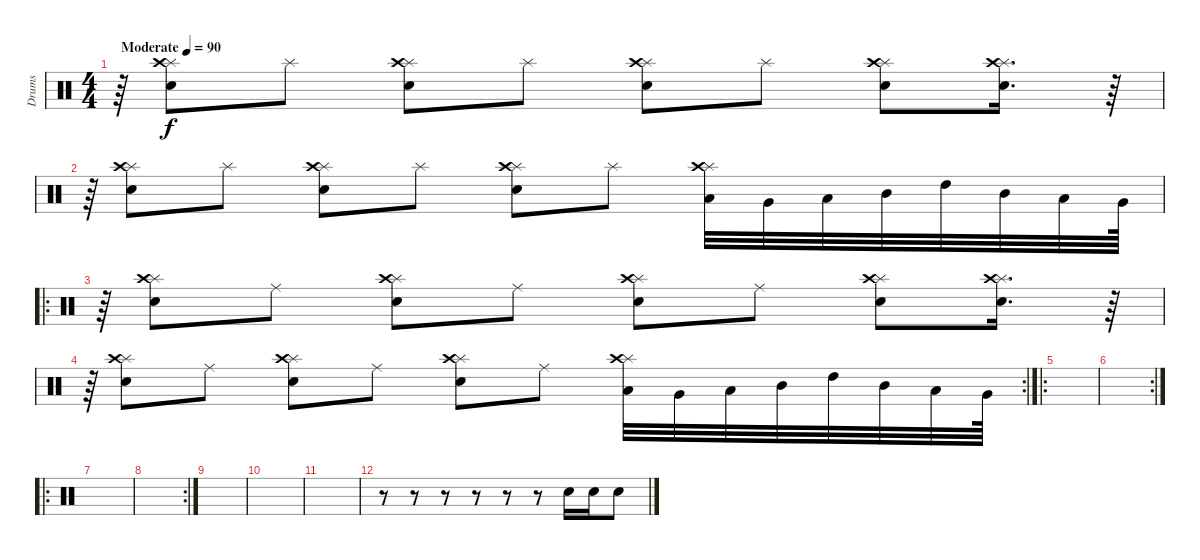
\track ("Drums" "Drums") {instrument percussion}
\staff
\articulation defaults
\ts (4 4)
\tempo (90 "Moderate")
\clef neutral
\ks c
r.64{dy f} ("Electric Snare (hit)" "Splash (hit)" "Crash high (hit)").8 "Splash (hit)".8 ("Electric Snare (hit)" "Splash (hit)" "Crash high (hit)").8 "Splash (hit)".8 ("Electric Snare (hit)" "Splash (hit)" "Crash high (hit)").8 "Splash (hit)".8 ("Electric Snare (hit)" "Splash (hit)" "Crash high (hit)").8 ("Electric Snare (hit)" "Splash (hit)" "Crash high (hit)").16{d} r.64 |
r.64 ("Electric Snare (hit)" "Splash (hit)" "Crash high (hit)").8 "Splash (hit)".8 ("Electric Snare (hit)" "Splash (hit)" "Crash high (hit)").8 "Splash (hit)".8 ("Electric Snare (hit)" "Splash (hit)" "Crash high (hit)").8 "Splash (hit)".8 ("Low Floor Tom (hit)" "Splash (hit)" "Crash high (hit)").32 "Very Low Tom (hit)".32 "Low Tom (hit)".32 "Mid Tom (hit)".32 "High Tom (hit)".32 "Mid Tom (hit)".32 "Low Tom (hit)".32 "Very Low Tom (hit)".64 |
\ro
r.64 ("Electric Snare (hit)" "Splash (hit)" "Crash high (hit)").8 "Ride (middle)".8 ("Electric Snare (hit)" "Splash (hit)" "Crash high (hit)").8 "Ride (middle)".8 ("Electric Snare (hit)" "Splash (hit)" "Crash high (hit)").8 "Ride (middle)".8 ("Electric Snare (hit)" "Splash (hit)" "Crash high (hit)").8 ("Electric Snare (hit)" "Splash (hit)" "Crash high (hit)").16{d} r.64 |
\rc 2
r.64 ("Electric Snare (hit)" "Splash (hit)" "Crash high (hit)").8 "Ride (middle)".8 ("Electric Snare (hit)" "Splash (hit)" "Crash high (hit)").8 "Ride (middle)".8 ("Electric Snare (hit)" "Splash (hit)" "Crash high (hit)").8 "Ride (middle)".8 ("Low Floor Tom (hit)" "Splash (hit)" "Crash high (hit)").32 "Very Low Tom (hit)".32 "Low Tom (hit)".32 "Mid Tom (hit)".32 "High Tom (hit)".32 "Mid Tom (hit)".32 "Low Tom (hit)".32 "Very Low Tom (hit)".64 |
\ro
|
\rc 2
|
\ro
|
\rc 2
|
|
|
|
r.8 r.8 r.8 r.8 r.8 r.8 "Electric Snare (hit)".16 "Electric Snare (hit)".16 "Electric Snare (hit)".8
